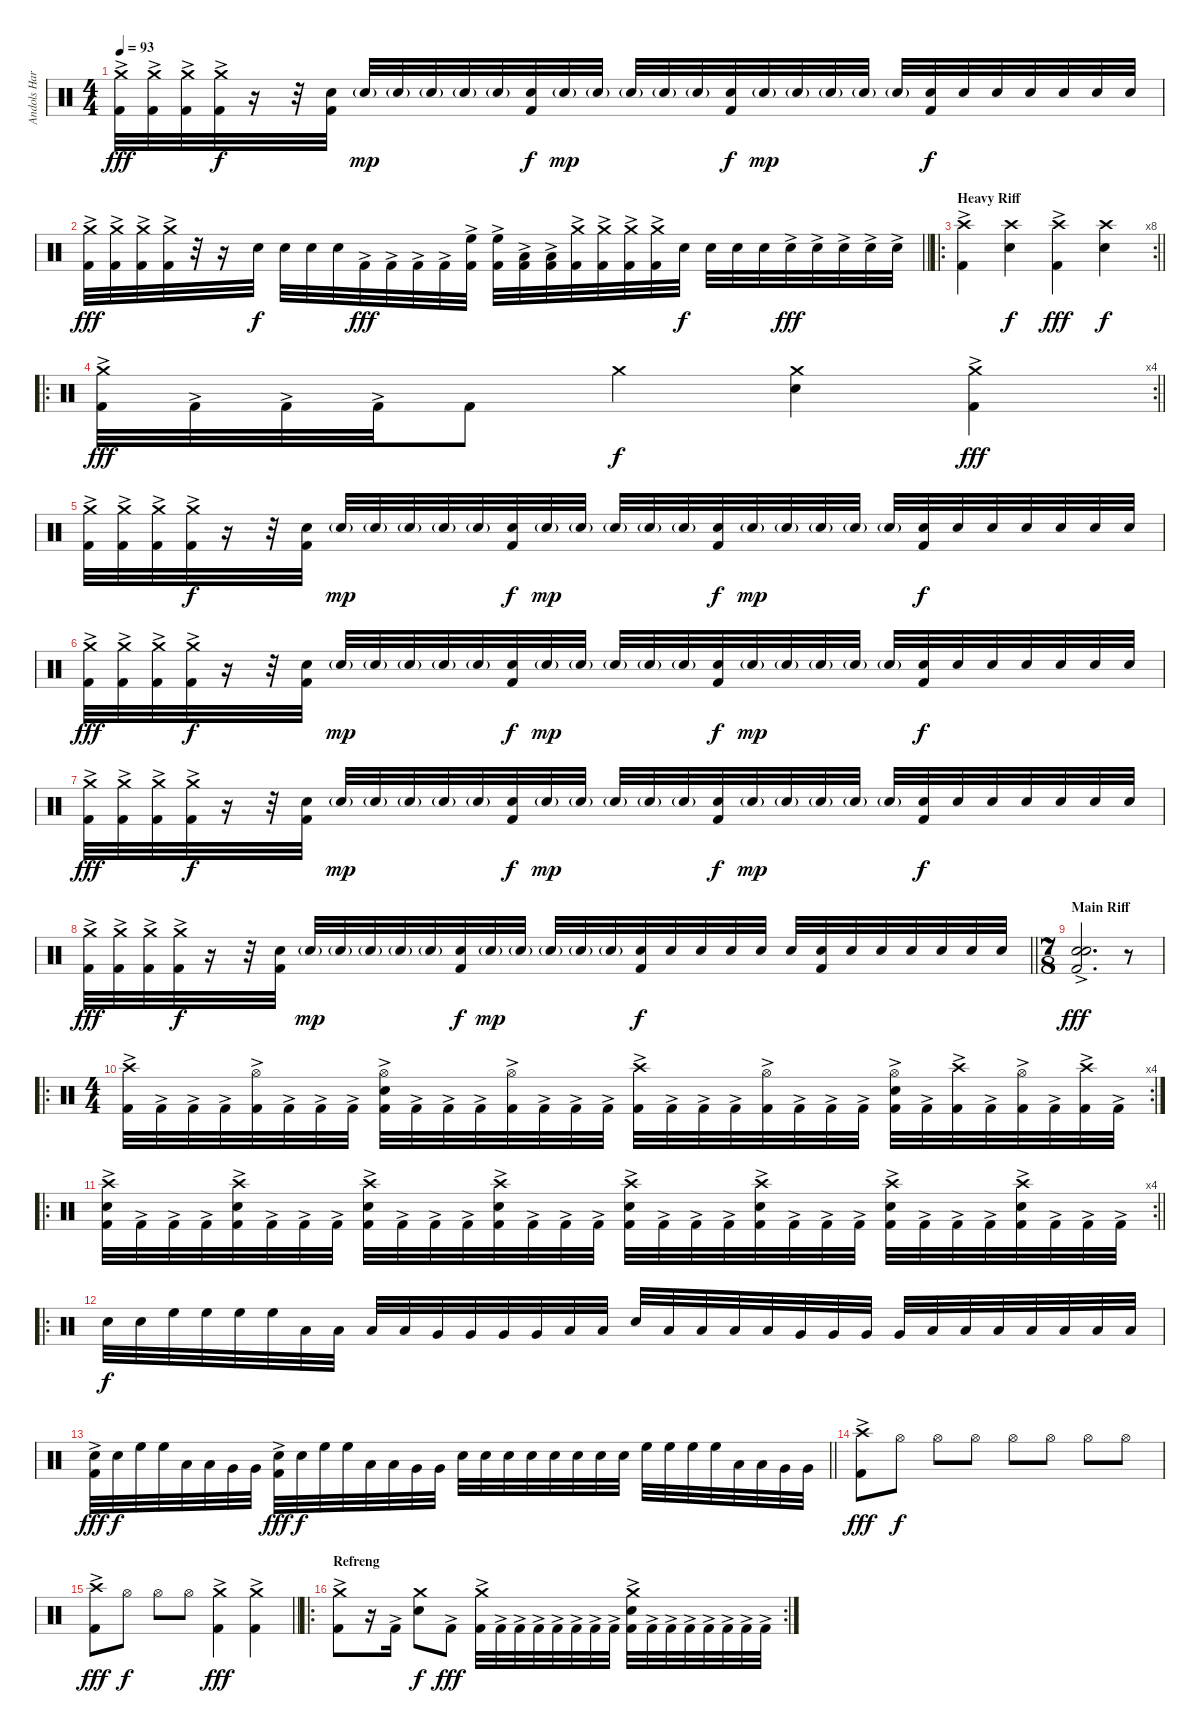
\track ("Andols Harrick" "Andols Har") {instrument percussion}
\staff {score}
\articulation defaults
\ts (4 4)
\tempo 93
\clef neutral
\ks c
("Crash medium (hit)" "Kick (hit) 2"{ac}).32{dy fff} ("Crash medium (hit)"{ac} "Kick (hit) 2").32 ("Crash medium (hit)"{ac} "Kick (hit) 2").32 ("Crash medium (hit)"{ac} "Kick (hit) 2").32{dy f} r.16 r.32 ("Electric Snare (hit)" "Kick (hit) 2").32 "Electric Snare (hit)"{g}.32{dy mp} "Electric Snare (hit)"{g}.32 "Electric Snare (hit)"{g}.32 "Electric Snare (hit)"{g}.32 "Electric Snare (hit)"{g}.32 ("Electric Snare (hit)" "Kick (hit) 2").32{dy f} "Electric Snare (hit)"{g}.32{dy mp} "Electric Snare (hit)"{g}.32 "Electric Snare (hit)"{g}.32 "Electric Snare (hit)"{g}.32 "Electric Snare (hit)"{g}.32 ("Electric Snare (hit)" "Kick (hit) 2").32{dy f} "Electric Snare (hit)"{g}.32{dy mp} "Electric Snare (hit)"{g}.32 "Electric Snare (hit)"{g}.32 "Electric Snare (hit)"{g}.32 "Electric Snare (hit)"{g}.32 ("Electric Snare (hit)" "Kick (hit) 2").32{dy f} "Electric Snare (hit)".32 "Electric Snare (hit)".32 "Electric Snare (hit)".32 "Electric Snare (hit)".32 "Electric Snare (hit)".32 "Electric Snare (hit)".32 |
\barLineRight lightlight
("Crash medium (hit)" "Kick (hit) 2"{ac}).32{dy fff} ("Crash medium (hit)" "Kick (hit) 2"{ac}).32 ("Crash medium (hit)" "Kick (hit) 2"{ac}).32 ("Crash medium (hit)" "Kick (hit) 2"{ac}).32 r.32 r.16 "Electric Snare (hit)".32{dy f} "Electric Snare (hit)".32 "Electric Snare (hit)".32 "Electric Snare (hit)".32 "Kick (hit) 2"{ac}.32{dy fff} "Kick (hit) 2"{ac}.32 "Kick (hit) 2"{ac}.32 "Kick (hit) 2"{ac}.32 ("High Floor Tom (hit)" "Kick (hit) 2"{ac}).32 ("High Floor Tom (hit)" "Kick (hit) 2"{ac}).32 ("Low Tom (hit)" "Kick (hit) 2"{ac}).32 ("Low Tom (hit)" "Kick (hit) 2"{ac}).32 ("Crash medium (hit)" "Kick (hit) 2"{ac}).32 ("Crash medium (hit)" "Kick (hit) 2"{ac}).32 ("Crash medium (hit)" "Kick (hit) 2"{ac}).32 ("Crash medium (hit)" "Kick (hit) 2"{ac}).32 "Electric Snare (hit)".32{dy f} "Electric Snare (hit)".32 "Electric Snare (hit)".32 "Electric Snare (hit)".32 "Electric Snare (hit)"{ac}.32{dy fff} "Electric Snare (hit)"{ac}.32 "Electric Snare (hit)"{ac}.32 "Electric Snare (hit)"{ac}.32 "Electric Snare (hit)"{ac}.32 |
\ro
\rc 8
\section ("" "Heavy Riff")
\barLineRight lightlight
("Crash high (hit)" "Kick (hit) 2"{ac}).4 ("Crash high (hit)" "Electric Snare (hit)").4{dy f} ("Crash high (hit)" "Kick (hit) 2"{ac}).4{dy fff} ("Crash high (hit)" "Electric Snare (hit)").4{dy f} |
\ro
\rc 4
\barLineRight lightlight
("Crash medium (hit)" "Kick (hit) 2"{ac}).32{dy fff} "Kick (hit) 2"{ac}.32 "Kick (hit) 2"{ac}.32 "Kick (hit) 2"{ac}.32 "Kick (hit) 2".8 "Crash medium (hit)".4{dy f} ("Crash medium (hit)" "Electric Snare (hit)").4 ("Crash medium (hit)" "Kick (hit) 2"{ac}).4{dy fff} |
\section ("" " ")
("Crash medium (hit)" "Kick (hit) 2"{ac}).32 ("Crash medium (hit)"{ac} "Kick (hit) 2").32 ("Crash medium (hit)"{ac} "Kick (hit) 2").32 ("Crash medium (hit)"{ac} "Kick (hit) 2").32{dy f} r.16 r.32 ("Electric Snare (hit)" "Kick (hit) 2").32 "Electric Snare (hit)"{g}.32{dy mp} "Electric Snare (hit)"{g}.32 "Electric Snare (hit)"{g}.32 "Electric Snare (hit)"{g}.32 "Electric Snare (hit)"{g}.32 ("Electric Snare (hit)" "Kick (hit) 2").32{dy f} "Electric Snare (hit)"{g}.32{dy mp} "Electric Snare (hit)"{g}.32 "Electric Snare (hit)"{g}.32 "Electric Snare (hit)"{g}.32 "Electric Snare (hit)"{g}.32 ("Electric Snare (hit)" "Kick (hit) 2").32{dy f} "Electric Snare (hit)"{g}.32{dy mp} "Electric Snare (hit)"{g}.32 "Electric Snare (hit)"{g}.32 "Electric Snare (hit)"{g}.32 "Electric Snare (hit)"{g}.32 ("Electric Snare (hit)" "Kick (hit) 2").32{dy f} "Electric Snare (hit)".32 "Electric Snare (hit)".32 "Electric Snare (hit)".32 "Electric Snare (hit)".32 "Electric Snare (hit)".32 "Electric Snare (hit)".32 |
("Crash medium (hit)" "Kick (hit) 2"{ac}).32{dy fff} ("Crash medium (hit)"{ac} "Kick (hit) 2").32 ("Crash medium (hit)"{ac} "Kick (hit) 2").32 ("Crash medium (hit)"{ac} "Kick (hit) 2").32{dy f} r.16 r.32 ("Electric Snare (hit)" "Kick (hit) 2").32 "Electric Snare (hit)"{g}.32{dy mp} "Electric Snare (hit)"{g}.32 "Electric Snare (hit)"{g}.32 "Electric Snare (hit)"{g}.32 "Electric Snare (hit)"{g}.32 ("Electric Snare (hit)" "Kick (hit) 2").32{dy f} "Electric Snare (hit)"{g}.32{dy mp} "Electric Snare (hit)"{g}.32 "Electric Snare (hit)"{g}.32 "Electric Snare (hit)"{g}.32 "Electric Snare (hit)"{g}.32 ("Electric Snare (hit)" "Kick (hit) 2").32{dy f} "Electric Snare (hit)"{g}.32{dy mp} "Electric Snare (hit)"{g}.32 "Electric Snare (hit)"{g}.32 "Electric Snare (hit)"{g}.32 "Electric Snare (hit)"{g}.32 ("Electric Snare (hit)" "Kick (hit) 2").32{dy f} "Electric Snare (hit)".32 "Electric Snare (hit)".32 "Electric Snare (hit)".32 "Electric Snare (hit)".32 "Electric Snare (hit)".32 "Electric Snare (hit)".32 |
("Crash medium (hit)" "Kick (hit) 2"{ac}).32{dy fff} ("Crash medium (hit)"{ac} "Kick (hit) 2").32 ("Crash medium (hit)"{ac} "Kick (hit) 2").32 ("Crash medium (hit)"{ac} "Kick (hit) 2").32{dy f} r.16 r.32 ("Electric Snare (hit)" "Kick (hit) 2").32 "Electric Snare (hit)"{g}.32{dy mp} "Electric Snare (hit)"{g}.32 "Electric Snare (hit)"{g}.32 "Electric Snare (hit)"{g}.32 "Electric Snare (hit)"{g}.32 ("Electric Snare (hit)" "Kick (hit) 2").32{dy f} "Electric Snare (hit)"{g}.32{dy mp} "Electric Snare (hit)"{g}.32 "Electric Snare (hit)"{g}.32 "Electric Snare (hit)"{g}.32 "Electric Snare (hit)"{g}.32 ("Electric Snare (hit)" "Kick (hit) 2").32{dy f} "Electric Snare (hit)"{g}.32{dy mp} "Electric Snare (hit)"{g}.32 "Electric Snare (hit)"{g}.32 "Electric Snare (hit)"{g}.32 "Electric Snare (hit)"{g}.32 ("Electric Snare (hit)" "Kick (hit) 2").32{dy f} "Electric Snare (hit)".32 "Electric Snare (hit)".32 "Electric Snare (hit)".32 "Electric Snare (hit)".32 "Electric Snare (hit)".32 "Electric Snare (hit)".32 |
\barLineRight lightlight
("Crash medium (hit)" "Kick (hit) 2"{ac}).32{dy fff} ("Crash medium (hit)"{ac} "Kick (hit) 2").32 ("Crash medium (hit)"{ac} "Kick (hit) 2").32 ("Crash medium (hit)"{ac} "Kick (hit) 2").32{dy f} r.16 r.32 ("Electric Snare (hit)" "Kick (hit) 2").32 "Electric Snare (hit)"{g}.32{dy mp} "Electric Snare (hit)"{g}.32 "Electric Snare (hit)"{g}.32 "Electric Snare (hit)"{g}.32 "Electric Snare (hit)"{g}.32 ("Electric Snare (hit)" "Kick (hit) 2").32{dy f} "Electric Snare (hit)"{g}.32{dy mp} "Electric Snare (hit)"{g}.32 "Electric Snare (hit)"{g}.32 "Electric Snare (hit)"{g}.32 "Electric Snare (hit)"{g}.32 ("Electric Snare (hit)" "Kick (hit) 2").32{dy f} "Electric Snare (hit)".32 "Electric Snare (hit)".32 "Electric Snare (hit)".32 "Electric Snare (hit)".32 "Electric Snare (hit)".32 ("Electric Snare (hit)" "Kick (hit) 2").32 "Electric Snare (hit)".32 "Electric Snare (hit)".32 "Electric Snare (hit)".32 "Electric Snare (hit)".32 "Electric Snare (hit)".32 "Electric Snare (hit)".32 |
\ts (7 8)
\section ("" "Main Riff")
("Electric Snare (hit)" "Electric Snare (hit)" "Kick (hit) 2"{ac}).2{d dy fff} r.8 |
\ro
\rc 4
\ts (4 4)
("Crash high (hit)" "Kick (hit) 2"{ac}).32 "Kick (hit) 2"{ac}.32 "Kick (hit) 2"{ac}.32 "Kick (hit) 2"{ac}.32 ("Hi-Hat (open)" "Kick (hit) 2"{ac}).32 "Kick (hit) 2"{ac}.32 "Kick (hit) 2"{ac}.32 "Kick (hit) 2"{ac}.32 ("Hi-Hat (open)" "Electric Snare (hit)" "Kick (hit) 2"{ac}).32 "Kick (hit) 2"{ac}.32 "Kick (hit) 2"{ac}.32 "Kick (hit) 2"{ac}.32 ("Hi-Hat (open)" "Kick (hit) 2"{ac}).32 "Kick (hit) 2"{ac}.32 "Kick (hit) 2"{ac}.32 "Kick (hit) 2"{ac}.32 ("Crash high (hit)" "Kick (hit) 2"{ac}).32 "Kick (hit) 2"{ac}.32 "Kick (hit) 2"{ac}.32 "Kick (hit) 2"{ac}.32 ("Hi-Hat (open)" "Kick (hit) 2"{ac}).32 "Kick (hit) 2"{ac}.32 "Kick (hit) 2"{ac}.32 "Kick (hit) 2"{ac}.32 ("Hi-Hat (open)" "Electric Snare (hit)" "Kick (hit) 2"{ac}).32 "Kick (hit) 2"{ac}.32 ("Crash high (hit)" "Kick (hit) 2"{ac}).32 "Kick (hit) 2"{ac}.32 ("Hi-Hat (open)" "Kick (hit) 2"{ac}).32 "Kick (hit) 2"{ac}.32 ("Crash high (hit)" "Kick (hit) 2"{ac}).32 "Kick (hit) 2"{ac}.32 |
\ro
\rc 4
\barLineRight lightlight
("Crash high (hit)" "Electric Snare (hit)" "Kick (hit) 2"{ac}).32 "Kick (hit) 2"{ac}.32 "Kick (hit) 2"{ac}.32 "Kick (hit) 2"{ac}.32 ("Crash high (hit)" "Electric Snare (hit)" "Kick (hit) 2"{ac}).32 "Kick (hit) 2"{ac}.32 "Kick (hit) 2"{ac}.32 "Kick (hit) 2"{ac}.32 ("Crash high (hit)" "Electric Snare (hit)" "Kick (hit) 2"{ac}).32 "Kick (hit) 2"{ac}.32 "Kick (hit) 2"{ac}.32 "Kick (hit) 2"{ac}.32 ("Crash high (hit)" "Electric Snare (hit)" "Kick (hit) 2"{ac}).32 "Kick (hit) 2"{ac}.32 "Kick (hit) 2"{ac}.32 "Kick (hit) 2"{ac}.32 ("Crash high (hit)" "Electric Snare (hit)" "Kick (hit) 2"{ac}).32 "Kick (hit) 2"{ac}.32 "Kick (hit) 2"{ac}.32 "Kick (hit) 2"{ac}.32 ("Crash high (hit)" "Electric Snare (hit)" "Kick (hit) 2"{ac}).32 "Kick (hit) 2"{ac}.32 "Kick (hit) 2"{ac}.32 "Kick (hit) 2"{ac}.32 ("Crash high (hit)" "Electric Snare (hit)" "Kick (hit) 2"{ac}).32 "Kick (hit) 2"{ac}.32 "Kick (hit) 2"{ac}.32 "Kick (hit) 2"{ac}.32 ("Crash high (hit)" "Electric Snare (hit)" "Kick (hit) 2"{ac}).32 "Kick (hit) 2"{ac}.32 "Kick (hit) 2"{ac}.32 "Kick (hit) 2"{ac}.32 |
\ro
\section ("" " ")
"Electric Snare (hit)".32{dy f} "Electric Snare (hit)".32 "High Floor Tom (hit)".32 "High Floor Tom (hit)".32 "High Floor Tom (hit)".32 "High Floor Tom (hit)".32 "Low Tom (hit)".32 "Low Tom (hit)".32 "Low Tom (hit)".32 "Low Tom (hit)".32 "Very Low Tom (hit)".32 "Very Low Tom (hit)".32 "Very Low Tom (hit)".32 "Very Low Tom (hit)".32 "Low Floor Tom (hit)".32 "Low Floor Tom (hit)".32 "Electric Snare (hit)".32 "Low Tom (hit)".32 "Low Tom (hit)".32 "Low Tom (hit)".32 "Low Tom (hit)".32 "Very Low Tom (hit)".32 "Very Low Tom (hit)".32 "Very Low Tom (hit)".32 "Very Low Tom (hit)".32 "Low Floor Tom (hit)".32 "Low Floor Tom (hit)".32 "Low Floor Tom (hit)".32 "Low Floor Tom (hit)".32 "Low Floor Tom (hit)".32 "Low Floor Tom (hit)".32 "Low Floor Tom (hit)".32 |
\barLineRight lightlight
("Electric Snare (hit)" "Kick (hit) 2"{ac}).32{dy fff} "Electric Snare (hit)".32{dy f} "High Floor Tom (hit)".32 "High Floor Tom (hit)".32 "Low Tom (hit)".32 "Low Tom (hit)".32 "Very Low Tom (hit)".32 "Very Low Tom (hit)".32 ("Electric Snare (hit)" "Kick (hit) 2"{ac}).32{dy fff} "Electric Snare (hit)".32{dy f} "High Floor Tom (hit)".32 "High Floor Tom (hit)".32 "Low Tom (hit)".32 "Low Tom (hit)".32 "Very Low Tom (hit)".32 "Very Low Tom (hit)".32 "Electric Snare (hit)".32 "Electric Snare (hit)".32 "Electric Snare (hit)".32 "Electric Snare (hit)".32 "Electric Snare (hit)".32 "Electric Snare (hit)".32 "Electric Snare (hit)".32 "Electric Snare (hit)".32 "High Floor Tom (hit)".32 "High Floor Tom (hit)".32 "High Floor Tom (hit)".32 "High Floor Tom (hit)".32 "Low Tom (hit)".32 "Low Tom (hit)".32 "Very Low Tom (hit)".32 "Very Low Tom (hit)".32 |
\section ("" " ")
("Crash high (hit)" "Kick (hit) 2"{ac}).8{dy fff} "Hi-Hat (open)".8{dy f} "Hi-Hat (open)".8 "Hi-Hat (open)".8 "Hi-Hat (open)".8 "Hi-Hat (open)".8 "Hi-Hat (open)".8 "Hi-Hat (open)".8 |
\barLineRight lightlight
("Crash high (hit)" "Kick (hit) 2"{ac}).8{dy fff} "Hi-Hat (open)".8{dy f} "Hi-Hat (open)".8 "Hi-Hat (open)".8 ("Crash medium (hit)" "Kick (hit) 2"{ac}).4{dy fff} ("Crash medium (hit)" "Kick (hit) 2"{ac}).4 |
\ro
\rc 2
\section ("" "Refreng")
("Crash medium (hit)" "Kick (hit) 2"{ac}).8 r.16 "Kick (hit) 2"{ac}.16 ("Crash medium (hit)" "Electric Snare (hit)").8{dy f} "Kick (hit) 2"{ac}.8{dy fff} ("Crash medium (hit)" "Kick (hit) 2"{ac}).32 "Kick (hit) 2"{ac}.32 "Kick (hit) 2"{ac}.32 "Kick (hit) 2"{ac}.32 "Kick (hit) 2"{ac}.32 "Kick (hit) 2"{ac}.32 "Kick (hit) 2"{ac}.32 "Kick (hit) 2"{ac}.32 ("Crash medium (hit)" "Electric Snare (hit)" "Kick (hit) 2"{ac}).32 "Kick (hit) 2"{ac}.32 "Kick (hit) 2"{ac}.32 "Kick (hit) 2"{ac}.32 "Kick (hit) 2"{ac}.32 "Kick (hit) 2"{ac}.32 "Kick (hit) 2"{ac}.32 "Kick (hit) 2"{ac}.32
